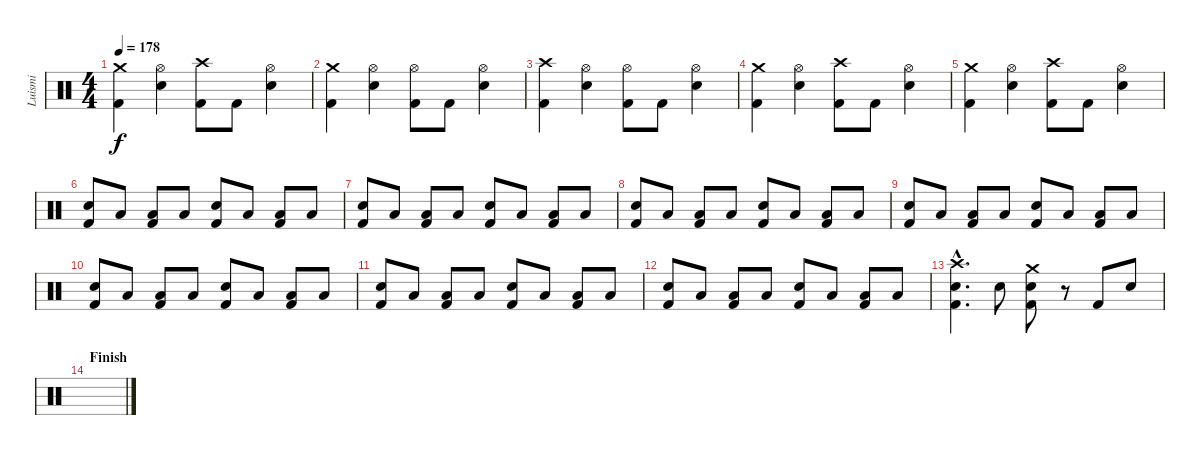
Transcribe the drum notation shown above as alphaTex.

\track ("Luismi" "Luismi") {instrument percussion}
\staff {score}
\articulation defaults
\ts (4 4)
\tempo 178
\clef neutral
\ks c
("Crash medium (hit)" "Kick (hit) 2").4{dy f} ("Hi-Hat (open)" "Snare (hit) 2").4 ("Crash high (hit)" "Kick (hit) 2").8 "Kick (hit) 2".8 ("Hi-Hat (open)" "Snare (hit) 2").4 |
("Crash medium (hit)" "Kick (hit) 2").4 ("Hi-Hat (open)" "Snare (hit) 2").4 ("Hi-Hat (open)" "Kick (hit) 2").8 "Kick (hit) 2".8 ("Hi-Hat (open)" "Snare (hit) 2").4 |
("Crash high (hit)" "Kick (hit) 2").4 ("Hi-Hat (open)" "Snare (hit) 2").4 ("Hi-Hat (open)" "Kick (hit) 2").8 "Kick (hit) 2".8 ("Hi-Hat (open)" "Snare (hit) 2").4 |
("Crash medium (hit)" "Kick (hit) 2").4 ("Hi-Hat (open)" "Snare (hit) 2").4 ("Crash high (hit)" "Kick (hit) 2").8 "Kick (hit) 2".8 ("Hi-Hat (open)" "Snare (hit) 2").4 |
("Crash medium (hit)" "Kick (hit) 2").4 ("Hi-Hat (open)" "Snare (hit) 2").4 ("Crash high (hit)" "Kick (hit) 2").8 "Kick (hit) 2".8 ("Hi-Hat (open)" "Snare (hit) 2").4 |
("Snare (hit) 2" "Kick (hit) 2").8 "Low Tom (hit)".8 ("Low Floor Tom (hit)" "Kick (hit) 2").8 "Low Floor Tom (hit)".8 ("Snare (hit) 2" "Kick (hit) 2").8 "Low Tom (hit)".8 ("Low Floor Tom (hit)" "Kick (hit) 2").8 "Low Floor Tom (hit)".8 |
("Snare (hit) 2" "Kick (hit) 2").8 "Low Tom (hit)".8 ("Low Floor Tom (hit)" "Kick (hit) 2").8 "Low Floor Tom (hit)".8 ("Snare (hit) 2" "Kick (hit) 2").8 "Low Tom (hit)".8 ("Low Floor Tom (hit)" "Kick (hit) 2").8 "Low Floor Tom (hit)".8 |
("Snare (hit) 2" "Kick (hit) 2").8 "Low Tom (hit)".8 ("Low Floor Tom (hit)" "Kick (hit) 2").8 "Low Floor Tom (hit)".8 ("Snare (hit) 2" "Kick (hit) 2").8 "Low Tom (hit)".8 ("Low Floor Tom (hit)" "Kick (hit) 2").8 "Low Floor Tom (hit)".8 |
("Snare (hit) 2" "Kick (hit) 2").8 "Low Tom (hit)".8 ("Low Floor Tom (hit)" "Kick (hit) 2").8 "Low Floor Tom (hit)".8 ("Snare (hit) 2" "Kick (hit) 2").8 "Low Tom (hit)".8 ("Low Floor Tom (hit)" "Kick (hit) 2").8 "Low Floor Tom (hit)".8 |
("Snare (hit) 2" "Kick (hit) 2").8 "Low Tom (hit)".8 ("Low Floor Tom (hit)" "Kick (hit) 2").8 "Low Floor Tom (hit)".8 ("Snare (hit) 2" "Kick (hit) 2").8 "Low Tom (hit)".8 ("Low Floor Tom (hit)" "Kick (hit) 2").8 "Low Floor Tom (hit)".8 |
("Snare (hit) 2" "Kick (hit) 2").8 "Low Tom (hit)".8 ("Low Floor Tom (hit)" "Kick (hit) 2").8 "Low Floor Tom (hit)".8 ("Snare (hit) 2" "Kick (hit) 2").8 "Low Tom (hit)".8 ("Low Floor Tom (hit)" "Kick (hit) 2").8 "Low Floor Tom (hit)".8 |
("Snare (hit) 2" "Kick (hit) 2").8 "Low Tom (hit)".8 ("Low Floor Tom (hit)" "Kick (hit) 2").8 "Low Floor Tom (hit)".8 ("Snare (hit) 2" "Kick (hit) 2").8 "Low Tom (hit)".8 ("Low Floor Tom (hit)" "Kick (hit) 2").8 "Low Floor Tom (hit)".8 |
("Crash high (hit)"{hac} "Snare (hit) 2"{hac} "Kick (hit) 2"{hac}).4{d} "Snare (hit) 2".8 ("Crash medium (hit)" "Snare (hit) 2" "Kick (hit) 2").8 r.8 "Kick (hit) 2".8 "Snare (hit) 2".8 |
\section ("" "Finish")
